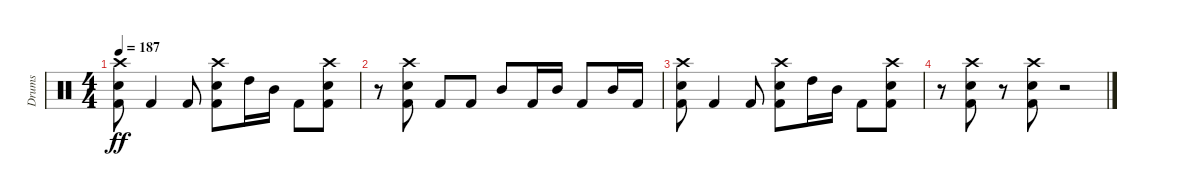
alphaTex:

\track ("Drums" "Drums") {instrument percussion}
\staff {score}
\articulation defaults
\ts (4 4)
\tempo 187
\clef neutral
\ks c
("Crash high (hit)" "Electric Snare (hit)" "Kick (hit) 2").8{dy ff} "Kick (hit) 2".4 "Kick (hit) 2".8 ("Crash high (hit)" "Electric Snare (hit)" "Kick (hit) 2").8 "High Tom (hit)".16 "Mid Tom (hit)".16 "Kick (hit) 2".8 ("Crash high (hit)" "Electric Snare (hit)" "Kick (hit) 2").8 |
r.8 ("Crash high (hit)" "Electric Snare (hit)" "Kick (hit) 2").8 "Kick (hit) 2".8 "Kick (hit) 2".8 "Mid Tom (hit)".8 "Kick (hit) 2".16 "Mid Tom (hit)".16 "Kick (hit) 2".8 "Mid Tom (hit)".16 "Kick (hit) 2".16 |
("Crash high (hit)" "Electric Snare (hit)" "Kick (hit) 2").8 "Kick (hit) 2".4 "Kick (hit) 2".8 ("Crash high (hit)" "Electric Snare (hit)" "Kick (hit) 2").8 "High Tom (hit)".16 "Mid Tom (hit)".16 "Kick (hit) 2".8 ("Crash high (hit)" "Electric Snare (hit)" "Kick (hit) 2").8 |
r.8 ("Crash high (hit)" "Electric Snare (hit)" "Kick (hit) 2").8 r.8 ("Crash high (hit)" "Electric Snare (hit)" "Kick (hit) 2").8 r.2
